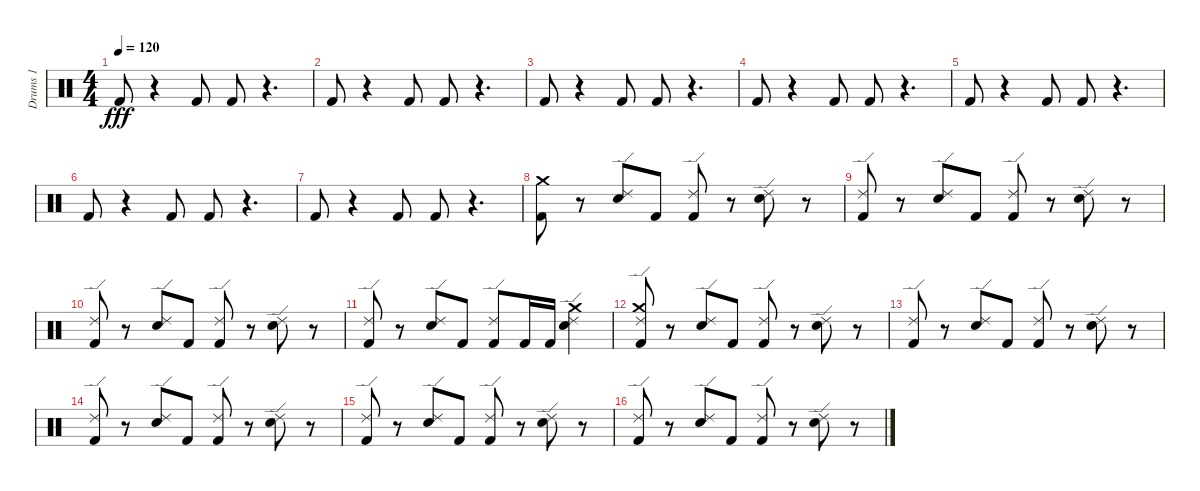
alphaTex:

\track ("Drums 1" "Drums 1") {instrument percussion}
\staff {score}
\articulation defaults
\ts (4 4)
\tempo 120
\clef neutral
\ks c "Kick (hit) 2".8{dy fff}
r.4 "Kick (hit) 2".8 "Kick (hit) 2".8 r.4{d} |
"Kick (hit) 2".8 r.4 "Kick (hit) 2".8 "Kick (hit) 2".8 r.4{d} |
"Kick (hit) 2".8 r.4 "Kick (hit) 2".8 "Kick (hit) 2".8 r.4{d} |
"Kick (hit) 2".8 r.4 "Kick (hit) 2".8 "Kick (hit) 2".8 r.4{d} |
"Kick (hit) 2".8 r.4 "Kick (hit) 2".8 "Kick (hit) 2".8 r.4{d} |
"Kick (hit) 2".8 r.4 "Kick (hit) 2".8 "Kick (hit) 2".8 r.4{d} |
"Kick (hit) 2".8 r.4 "Kick (hit) 2".8 "Kick (hit) 2".8 r.4{d} |
("Kick (hit) 2" "Crash medium (hit)").8 r.8 ("Electric Snare (hit)" "Ride (edge) 2").8 "Kick (hit) 2".8 ("Kick (hit) 2" "Ride (edge) 2").8 r.8 ("Electric Snare (hit)" "Ride (edge) 2").8 r.8 |
("Kick (hit) 2" "Ride (edge) 2").8 r.8 ("Electric Snare (hit)" "Ride (edge) 2").8 "Kick (hit) 2".8 ("Kick (hit) 2" "Ride (edge) 2").8 r.8 ("Electric Snare (hit)" "Ride (edge) 2").8 r.8 |
("Kick (hit) 2" "Ride (edge) 2").8 r.8 ("Electric Snare (hit)" "Ride (edge) 2").8 "Kick (hit) 2".8 ("Kick (hit) 2" "Ride (edge) 2").8 r.8 ("Electric Snare (hit)" "Ride (edge) 2").8 r.8 |
("Kick (hit) 2" "Ride (edge) 2").8 r.8 ("Electric Snare (hit)" "Ride (edge) 2").8 "Kick (hit) 2".8 ("Kick (hit) 2" "Ride (edge) 2").8 "Kick (hit) 2".16 "Kick (hit) 2".16 ("Ride (edge) 2" "Electric Snare (hit)" "Crash medium (hit)").4 |
("Crash medium (hit)" "Kick (hit) 2" "Ride (edge) 2").8 r.8 ("Electric Snare (hit)" "Ride (edge) 2").8 "Kick (hit) 2".8 ("Kick (hit) 2" "Ride (edge) 2").8 r.8 ("Electric Snare (hit)" "Ride (edge) 2").8 r.8 |
("Kick (hit) 2" "Ride (edge) 2").8 r.8 ("Electric Snare (hit)" "Ride (edge) 2").8 "Kick (hit) 2".8 ("Kick (hit) 2" "Ride (edge) 2").8 r.8 ("Electric Snare (hit)" "Ride (edge) 2").8 r.8 |
("Kick (hit) 2" "Ride (edge) 2").8 r.8 ("Electric Snare (hit)" "Ride (edge) 2").8 "Kick (hit) 2".8 ("Kick (hit) 2" "Ride (edge) 2").8 r.8 ("Electric Snare (hit)" "Ride (edge) 2").8 r.8 |
("Kick (hit) 2" "Ride (edge) 2").8 r.8 ("Electric Snare (hit)" "Ride (edge) 2").8 "Kick (hit) 2".8 ("Kick (hit) 2" "Ride (edge) 2").8 r.8 ("Electric Snare (hit)" "Ride (edge) 2").8 r.8 |
("Kick (hit) 2" "Ride (edge) 2").8 r.8 ("Electric Snare (hit)" "Ride (edge) 2").8 "Kick (hit) 2".8 ("Kick (hit) 2" "Ride (edge) 2").8 r.8 ("Electric Snare (hit)" "Ride (edge) 2").8 r.8
